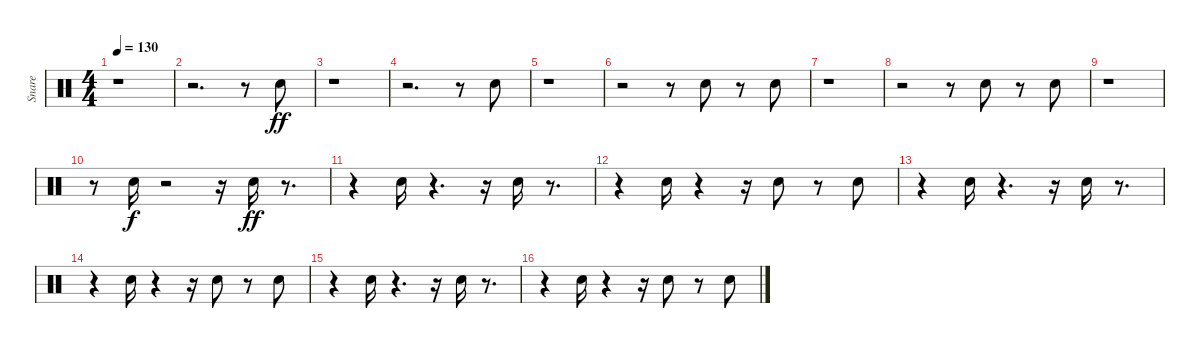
\track ("Snare" "Snare") {instrument percussion}
\staff {score}
\articulation defaults
\ts (4 4)
\tempo 130
\clef neutral
\ks c
r.1{dy fff} |
r.2{d} r.8 "Snare (hit) 2".8{dy ff} |
r.1 |
r.2{d} r.8 "Snare (hit) 2".8 |
r.1 |
r.2 r.8 "Snare (hit) 2".8 r.8 "Snare (hit) 2".8 |
r.1 |
r.2 r.8 "Snare (hit) 2".8 r.8 "Snare (hit) 2".8 |
r.1 |
r.8 "Snare (hit) 2".16{dy f} r.2 r.16 "Snare (hit) 2".16{dy ff} r.8{d} |
r.4 "Snare (hit) 2".16 r.4{d} r.16 "Snare (hit) 2".16 r.8{d} |
r.4 "Snare (hit) 2".16 r.4 r.16 "Snare (hit) 2".8 r.8 "Snare (hit) 2".8 |
r.4 "Snare (hit) 2".16 r.4{d} r.16 "Snare (hit) 2".16 r.8{d} |
r.4 "Snare (hit) 2".16 r.4 r.16 "Snare (hit) 2".8 r.8 "Snare (hit) 2".8 |
r.4 "Snare (hit) 2".16 r.4{d} r.16 "Snare (hit) 2".16 r.8{d} |
r.4 "Snare (hit) 2".16 r.4 r.16 "Snare (hit) 2".8 r.8 "Snare (hit) 2".8
